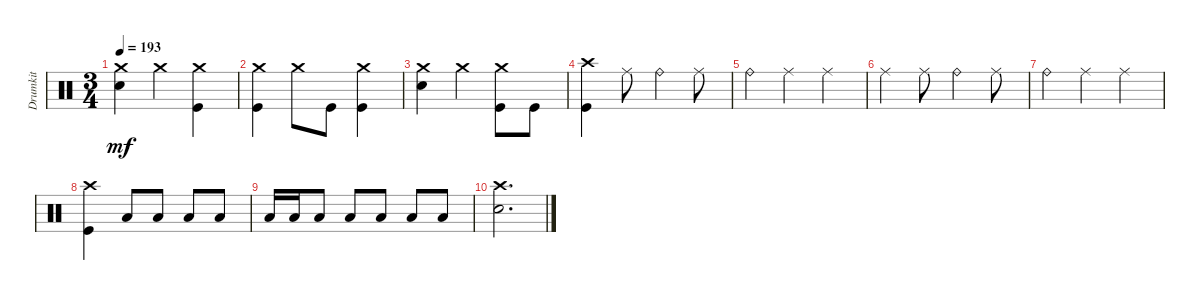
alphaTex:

\track ("Drumkit" "Drumkit") {instrument percussion}
\staff {score}
\articulation defaults
\ts (3 4)
\tempo 193
\clef neutral
\ks c
("Snare (hit) 2" "Crash medium (hit)").4{dy mf} "Crash medium (hit)".4 ("Kick (hit)" "Crash medium (hit)").4 |
("Kick (hit)" "Crash medium (hit)").4 "Crash medium (hit)".8 "Kick (hit)".8 ("Kick (hit)" "Crash medium (hit)").4 |
("Snare (hit) 2" "Crash medium (hit)").4 "Crash medium (hit)".4 ("Kick (hit)" "Crash medium (hit)").8 "Kick (hit)".8 |
("Kick (hit)" "Crash high (hit)").4 "Ride (middle)".8 "Ride (bell)".4 "Ride (middle)".8 |
"Ride (bell)".4 "Ride (middle)".4 "Ride (middle)".4 |
"Ride (middle)".4 "Ride (middle)".8 "Ride (bell)".4 "Ride (middle)".8 |
"Ride (bell)".4 "Ride (middle)".4 "Ride (middle)".4 |
("Kick (hit)" "Crash high (hit)").4 "Low Floor Tom (hit)".8 "Low Floor Tom (hit)".8 "Low Floor Tom (hit)".8 "Low Floor Tom (hit)".8 |
"Low Floor Tom (hit)".16 "Low Floor Tom (hit)".16 "Low Floor Tom (hit)".8 "Low Floor Tom (hit)".8 "Low Floor Tom (hit)".8 "Low Floor Tom (hit)".8 "Low Floor Tom (hit)".8 |
("Snare (hit) 2" "Crash high (hit)").2{d}
